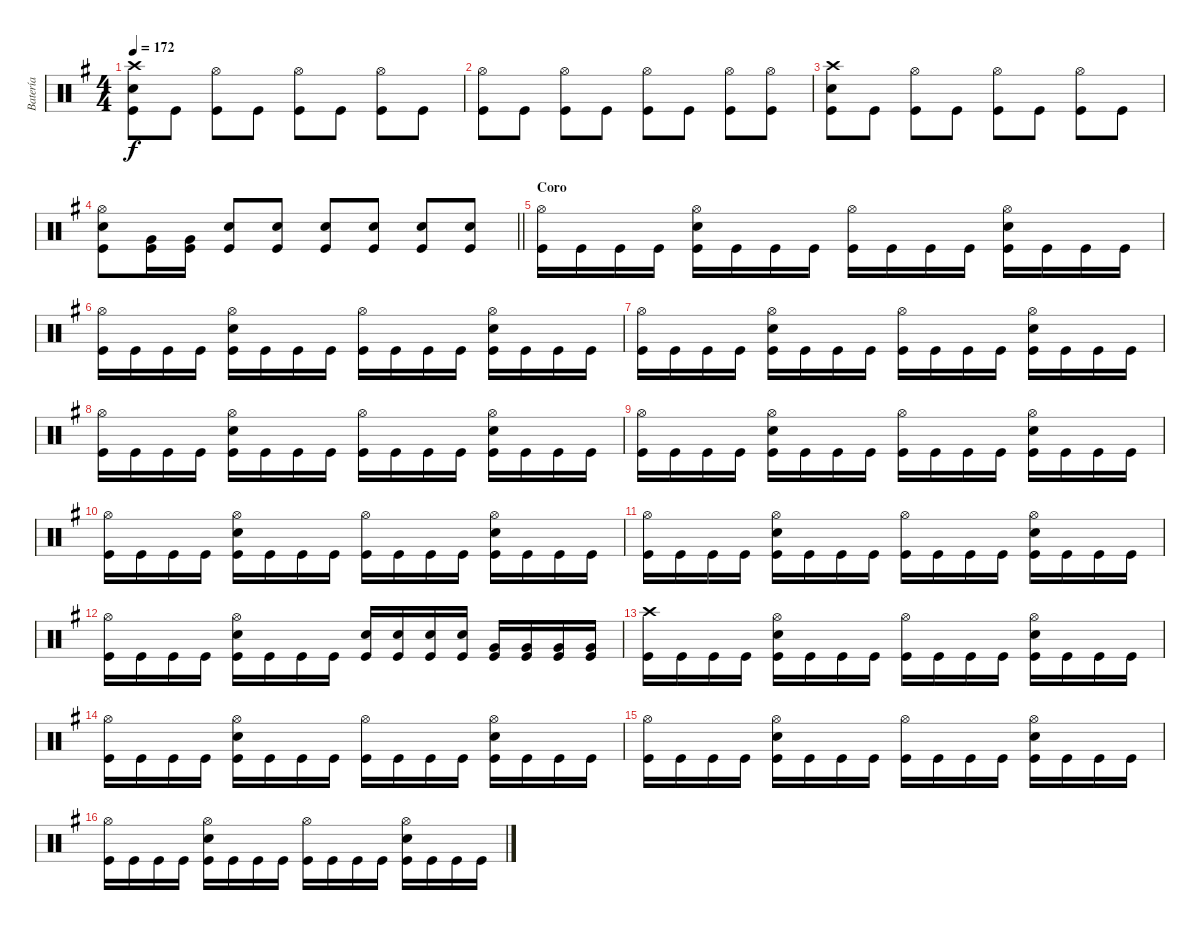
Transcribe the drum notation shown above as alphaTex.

\track ("Batería" "Batería") {instrument percussion}
\staff {score}
\articulation defaults
\ts (4 4)
\tempo 172
\clef neutral
\ks eminor
("Kick (hit)" "Electric Snare (hit)" "Crash high (hit)").8{dy f} "Kick (hit)".8 ("Kick (hit)" "Hi-Hat (open)").8 "Kick (hit)".8 ("Kick (hit)" "Hi-Hat (open)").8 "Kick (hit)".8 ("Kick (hit)" "Hi-Hat (open)").8 "Kick (hit)".8 |
("Kick (hit)" "Hi-Hat (open)").8 "Kick (hit)".8 ("Kick (hit)" "Hi-Hat (open)").8 "Kick (hit)".8 ("Kick (hit)" "Hi-Hat (open)").8 "Kick (hit)".8 ("Kick (hit)" "Hi-Hat (open)").8 ("Kick (hit)" "Hi-Hat (open)").8 |
("Kick (hit)" "Electric Snare (hit)" "Crash high (hit)").8 "Kick (hit)".8 ("Kick (hit)" "Hi-Hat (open)").8 "Kick (hit)".8 ("Kick (hit)" "Hi-Hat (open)").8 "Kick (hit)".8 ("Kick (hit)" "Hi-Hat (open)").8 "Kick (hit)".8 |
\barLineRight lightlight
("Kick (hit)" "Electric Snare (hit)" "Hi-Hat (open)").8 ("Kick (hit)" "Very Low Tom (hit)").16 ("Kick (hit)" "Very Low Tom (hit)").16 ("Kick (hit)" "Electric Snare (hit)").8 ("Kick (hit)" "Electric Snare (hit)").8 ("Kick (hit)" "Electric Snare (hit)").8 ("Kick (hit)" "Electric Snare (hit)").8 ("Kick (hit)" "Electric Snare (hit)").8 ("Kick (hit)" "Electric Snare (hit)").8 |
\section ("" "Coro")
("Kick (hit)" "Hi-Hat (open)").16 "Kick (hit)".16 "Kick (hit)".16 "Kick (hit)".16 ("Kick (hit)" "Hi-Hat (open)" "Electric Snare (hit)").16 "Kick (hit)".16 "Kick (hit)".16 "Kick (hit)".16 ("Kick (hit)" "Hi-Hat (open)").16 "Kick (hit)".16 "Kick (hit)".16 "Kick (hit)".16 ("Kick (hit)" "Hi-Hat (open)" "Electric Snare (hit)").16 "Kick (hit)".16 "Kick (hit)".16 "Kick (hit)".16 |
("Kick (hit)" "Hi-Hat (open)").16 "Kick (hit)".16 "Kick (hit)".16 "Kick (hit)".16 ("Kick (hit)" "Hi-Hat (open)" "Electric Snare (hit)").16 "Kick (hit)".16 "Kick (hit)".16 "Kick (hit)".16 ("Kick (hit)" "Hi-Hat (open)").16 "Kick (hit)".16 "Kick (hit)".16 "Kick (hit)".16 ("Kick (hit)" "Hi-Hat (open)" "Electric Snare (hit)").16 "Kick (hit)".16 "Kick (hit)".16 "Kick (hit)".16 |
("Kick (hit)" "Hi-Hat (open)").16 "Kick (hit)".16 "Kick (hit)".16 "Kick (hit)".16 ("Kick (hit)" "Hi-Hat (open)" "Electric Snare (hit)").16 "Kick (hit)".16 "Kick (hit)".16 "Kick (hit)".16 ("Kick (hit)" "Hi-Hat (open)").16 "Kick (hit)".16 "Kick (hit)".16 "Kick (hit)".16 ("Kick (hit)" "Hi-Hat (open)" "Electric Snare (hit)").16 "Kick (hit)".16 "Kick (hit)".16 "Kick (hit)".16 |
("Kick (hit)" "Hi-Hat (open)").16 "Kick (hit)".16 "Kick (hit)".16 "Kick (hit)".16 ("Kick (hit)" "Hi-Hat (open)" "Electric Snare (hit)").16 "Kick (hit)".16 "Kick (hit)".16 "Kick (hit)".16 ("Kick (hit)" "Hi-Hat (open)").16 "Kick (hit)".16 "Kick (hit)".16 "Kick (hit)".16 ("Kick (hit)" "Hi-Hat (open)" "Electric Snare (hit)").16 "Kick (hit)".16 "Kick (hit)".16 "Kick (hit)".16 |
("Kick (hit)" "Hi-Hat (open)").16 "Kick (hit)".16 "Kick (hit)".16 "Kick (hit)".16 ("Kick (hit)" "Hi-Hat (open)" "Electric Snare (hit)").16 "Kick (hit)".16 "Kick (hit)".16 "Kick (hit)".16 ("Kick (hit)" "Hi-Hat (open)").16 "Kick (hit)".16 "Kick (hit)".16 "Kick (hit)".16 ("Kick (hit)" "Hi-Hat (open)" "Electric Snare (hit)").16 "Kick (hit)".16 "Kick (hit)".16 "Kick (hit)".16 |
("Kick (hit)" "Hi-Hat (open)").16 "Kick (hit)".16 "Kick (hit)".16 "Kick (hit)".16 ("Kick (hit)" "Hi-Hat (open)" "Electric Snare (hit)").16 "Kick (hit)".16 "Kick (hit)".16 "Kick (hit)".16 ("Kick (hit)" "Hi-Hat (open)").16 "Kick (hit)".16 "Kick (hit)".16 "Kick (hit)".16 ("Kick (hit)" "Hi-Hat (open)" "Electric Snare (hit)").16 "Kick (hit)".16 "Kick (hit)".16 "Kick (hit)".16 |
("Kick (hit)" "Hi-Hat (open)").16 "Kick (hit)".16 "Kick (hit)".16 "Kick (hit)".16 ("Kick (hit)" "Hi-Hat (open)" "Electric Snare (hit)").16 "Kick (hit)".16 "Kick (hit)".16 "Kick (hit)".16 ("Kick (hit)" "Hi-Hat (open)").16 "Kick (hit)".16 "Kick (hit)".16 "Kick (hit)".16 ("Kick (hit)" "Hi-Hat (open)" "Electric Snare (hit)").16 "Kick (hit)".16 "Kick (hit)".16 "Kick (hit)".16 |
("Kick (hit)" "Hi-Hat (open)").16 "Kick (hit)".16 "Kick (hit)".16 "Kick (hit)".16 ("Kick (hit)" "Hi-Hat (open)" "Electric Snare (hit)").16 "Kick (hit)".16 "Kick (hit)".16 "Kick (hit)".16 ("Kick (hit)" "Electric Snare (hit)").16 ("Kick (hit)" "Electric Snare (hit)").16 ("Kick (hit)" "Electric Snare (hit)").16 ("Kick (hit)" "Electric Snare (hit)").16 ("Kick (hit)" "Very Low Tom (hit)").16 ("Kick (hit)" "Very Low Tom (hit)").16 ("Kick (hit)" "Very Low Tom (hit)").16 ("Kick (hit)" "Very Low Tom (hit)").16 |
("Kick (hit)" "Crash high (hit)").16 "Kick (hit)".16 "Kick (hit)".16 "Kick (hit)".16 ("Kick (hit)" "Hi-Hat (open)" "Electric Snare (hit)").16 "Kick (hit)".16 "Kick (hit)".16 "Kick (hit)".16 ("Kick (hit)" "Hi-Hat (open)").16 "Kick (hit)".16 "Kick (hit)".16 "Kick (hit)".16 ("Kick (hit)" "Hi-Hat (open)" "Electric Snare (hit)").16 "Kick (hit)".16 "Kick (hit)".16 "Kick (hit)".16 |
("Kick (hit)" "Hi-Hat (open)").16 "Kick (hit)".16 "Kick (hit)".16 "Kick (hit)".16 ("Kick (hit)" "Hi-Hat (open)" "Electric Snare (hit)").16 "Kick (hit)".16 "Kick (hit)".16 "Kick (hit)".16 ("Kick (hit)" "Hi-Hat (open)").16 "Kick (hit)".16 "Kick (hit)".16 "Kick (hit)".16 ("Kick (hit)" "Hi-Hat (open)" "Electric Snare (hit)").16 "Kick (hit)".16 "Kick (hit)".16 "Kick (hit)".16 |
("Kick (hit)" "Hi-Hat (open)").16 "Kick (hit)".16 "Kick (hit)".16 "Kick (hit)".16 ("Kick (hit)" "Hi-Hat (open)" "Electric Snare (hit)").16 "Kick (hit)".16 "Kick (hit)".16 "Kick (hit)".16 ("Kick (hit)" "Hi-Hat (open)").16 "Kick (hit)".16 "Kick (hit)".16 "Kick (hit)".16 ("Kick (hit)" "Hi-Hat (open)" "Electric Snare (hit)").16 "Kick (hit)".16 "Kick (hit)".16 "Kick (hit)".16 |
("Kick (hit)" "Hi-Hat (open)").16 "Kick (hit)".16 "Kick (hit)".16 "Kick (hit)".16 ("Kick (hit)" "Hi-Hat (open)" "Electric Snare (hit)").16 "Kick (hit)".16 "Kick (hit)".16 "Kick (hit)".16 ("Kick (hit)" "Hi-Hat (open)").16 "Kick (hit)".16 "Kick (hit)".16 "Kick (hit)".16 ("Kick (hit)" "Hi-Hat (open)" "Electric Snare (hit)").16 "Kick (hit)".16 "Kick (hit)".16 "Kick (hit)".16
